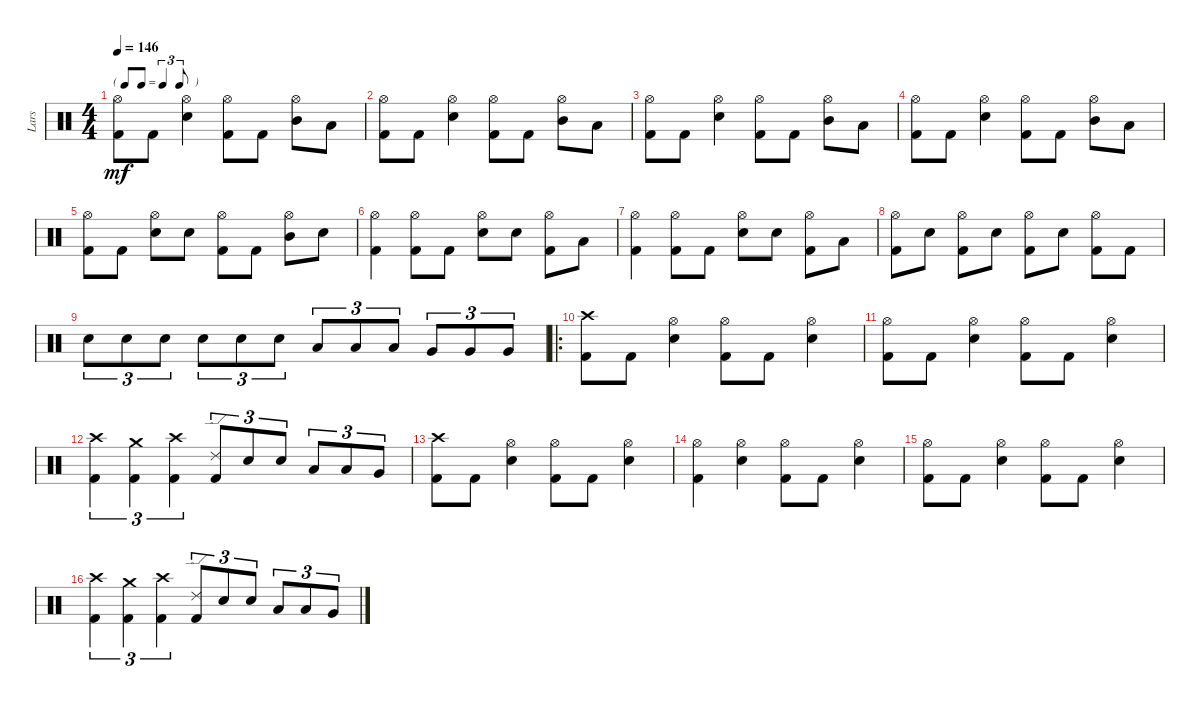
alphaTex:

\track ("Lars" "Lars") {instrument percussion}
\staff {score}
\articulation defaults
\ts (4 4)
\tf triplet8th
\tempo 146
\clef neutral
\ks c
("Hi-Hat (open)" "Kick (hit) 2").8{dy mf} "Kick (hit) 2".8 ("Hi-Hat (open)" "Electric Snare (hit)").4 ("Hi-Hat (open)" "Kick (hit) 2").8 "Kick (hit) 2".8 ("Hi-Hat (open)" "Mid Tom (hit)").8 "Low Tom (hit)".8 |
("Hi-Hat (open)" "Kick (hit) 2").8 "Kick (hit) 2".8 ("Hi-Hat (open)" "Electric Snare (hit)").4 ("Hi-Hat (open)" "Kick (hit) 2").8 "Kick (hit) 2".8 ("Hi-Hat (open)" "Mid Tom (hit)").8 "Low Tom (hit)".8 |
("Hi-Hat (open)" "Kick (hit) 2").8 "Kick (hit) 2".8 ("Hi-Hat (open)" "Electric Snare (hit)").4 ("Hi-Hat (open)" "Kick (hit) 2").8 "Kick (hit) 2".8 ("Hi-Hat (open)" "Mid Tom (hit)").8 "Low Tom (hit)".8 |
("Hi-Hat (open)" "Kick (hit) 2").8 "Kick (hit) 2".8 ("Hi-Hat (open)" "Electric Snare (hit)").4 ("Hi-Hat (open)" "Kick (hit) 2").8 "Kick (hit) 2".8 ("Hi-Hat (open)" "Mid Tom (hit)").8 "Low Tom (hit)".8 |
("Hi-Hat (open)" "Kick (hit) 2").8 "Kick (hit) 2".8 ("Hi-Hat (open)" "Electric Snare (hit)").8 "Electric Snare (hit)".8 ("Hi-Hat (open)" "Kick (hit) 2").8 "Kick (hit) 2".8 ("Hi-Hat (open)" "Mid Tom (hit)").8 "Electric Snare (hit)".8 |
("Hi-Hat (open)" "Kick (hit) 2").4 ("Hi-Hat (open)" "Kick (hit) 2").8 "Kick (hit) 2".8 ("Hi-Hat (open)" "Electric Snare (hit)").8 "Electric Snare (hit)".8 ("Hi-Hat (open)" "Kick (hit) 2").8 "Low Tom (hit)".8 |
("Hi-Hat (open)" "Kick (hit) 2").4 ("Hi-Hat (open)" "Kick (hit) 2").8 "Kick (hit) 2".8 ("Hi-Hat (open)" "Electric Snare (hit)").8 "Electric Snare (hit)".8 ("Hi-Hat (open)" "Kick (hit) 2").8 "Low Tom (hit)".8 |
("Hi-Hat (open)" "Kick (hit) 2").8 "Electric Snare (hit)".8 ("Hi-Hat (open)" "Kick (hit) 2").8 "Electric Snare (hit)".8 ("Hi-Hat (open)" "Kick (hit) 2").8 "Electric Snare (hit)".8 ("Hi-Hat (open)" "Kick (hit) 2").8 "Kick (hit) 2".8 |
"Electric Snare (hit)".8{tu (3 2)} "Electric Snare (hit)".8{tu (3 2)} "Electric Snare (hit)".8{tu (3 2)} "Electric Snare (hit)".8{tu (3 2)} "Electric Snare (hit)".8{tu (3 2)} "Electric Snare (hit)".8{tu (3 2)} "Low Tom (hit)".8{tu (3 2)} "Low Tom (hit)".8{tu (3 2)} "Low Tom (hit)".8{tu (3 2)} "Very Low Tom (hit)".8{tu (3 2)} "Very Low Tom (hit)".8{tu (3 2)} "Very Low Tom (hit)".8{tu (3 2)} |
\ro
("Crash high (hit)" "Kick (hit) 2").8 "Kick (hit) 2".8 ("Hi-Hat (open)" "Electric Snare (hit)").4 ("Hi-Hat (open)" "Kick (hit) 2").8 "Kick (hit) 2".8 ("Hi-Hat (open)" "Electric Snare (hit)").4 |
("Hi-Hat (open)" "Kick (hit) 2").8 "Kick (hit) 2".8 ("Hi-Hat (open)" "Electric Snare (hit)").4 ("Hi-Hat (open)" "Kick (hit) 2").8 "Kick (hit) 2".8 ("Hi-Hat (open)" "Electric Snare (hit)").4 |
("Crash high (hit)" "Kick (hit) 2").4{tu (3 2)} ("Crash medium (hit)" "Kick (hit) 2").4{tu (3 2)} ("Crash high (hit)" "Kick (hit) 2").4{tu (3 2)} ("Ride (edge) 2" "Kick (hit) 2").8{tu (3 2)} "Electric Snare (hit)".8{tu (3 2)} "Electric Snare (hit)".8{tu (3 2)} "Low Tom (hit)".8{tu (3 2)} "Low Tom (hit)".8{tu (3 2)} "Very Low Tom (hit)".8{tu (3 2)} |
("Crash high (hit)" "Kick (hit) 2").8 "Kick (hit) 2".8 ("Hi-Hat (open)" "Electric Snare (hit)").4 ("Hi-Hat (open)" "Kick (hit) 2").8 "Kick (hit) 2".8 ("Hi-Hat (open)" "Electric Snare (hit)").4 |
("Hi-Hat (open)" "Kick (hit) 2").4 ("Hi-Hat (open)" "Electric Snare (hit)").4 ("Hi-Hat (open)" "Kick (hit) 2").8 "Kick (hit) 2".8 ("Hi-Hat (open)" "Electric Snare (hit)").4 |
("Hi-Hat (open)" "Kick (hit) 2").8 "Kick (hit) 2".8 ("Hi-Hat (open)" "Electric Snare (hit)").4 ("Hi-Hat (open)" "Kick (hit) 2").8 "Kick (hit) 2".8 ("Hi-Hat (open)" "Electric Snare (hit)").4 |
("Crash high (hit)" "Kick (hit) 2").4{tu (3 2)} ("Crash medium (hit)" "Kick (hit) 2").4{tu (3 2)} ("Crash high (hit)" "Kick (hit) 2").4{tu (3 2)} ("Ride (edge) 2" "Kick (hit) 2").8{tu (3 2)} "Electric Snare (hit)".8{tu (3 2)} "Electric Snare (hit)".8{tu (3 2)} "Low Tom (hit)".8{tu (3 2)} "Low Tom (hit)".8{tu (3 2)} "Very Low Tom (hit)".8{tu (3 2)}
